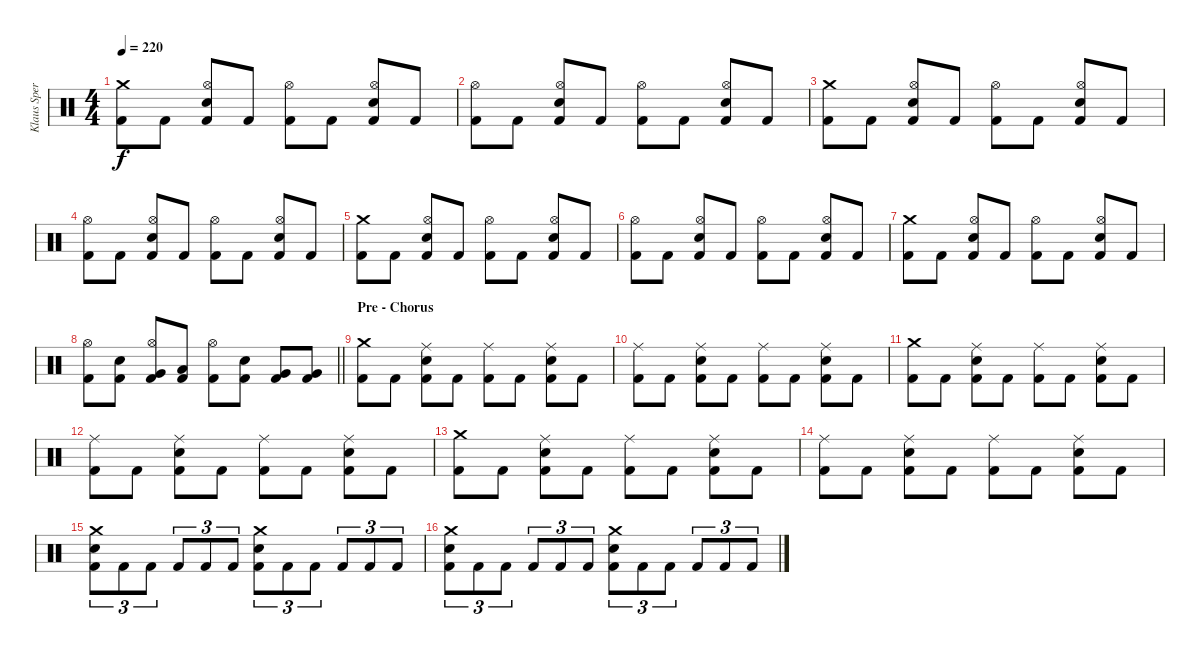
\track ("Klaus Sperling" "Klaus Sper") {instrument percussion}
\staff {score}
\articulation defaults
\ts (4 4)
\tempo 220
\clef neutral
\ks c
("Crash medium (hit)" "Kick (hit) 2").8{dy f} "Kick (hit) 2".8 ("Hi-Hat (open)" "Electric Snare (hit)" "Kick (hit) 2").8 "Kick (hit) 2".8 ("Hi-Hat (open)" "Kick (hit) 2").8 "Kick (hit) 2".8 ("Hi-Hat (open)" "Electric Snare (hit)" "Kick (hit) 2").8 "Kick (hit) 2".8 |
("Hi-Hat (open)" "Kick (hit) 2").8 "Kick (hit) 2".8 ("Hi-Hat (open)" "Electric Snare (hit)" "Kick (hit) 2").8 "Kick (hit) 2".8 ("Hi-Hat (open)" "Kick (hit) 2").8 "Kick (hit) 2".8 ("Hi-Hat (open)" "Electric Snare (hit)" "Kick (hit) 2").8 "Kick (hit) 2".8 |
("Crash medium (hit)" "Kick (hit) 2").8 "Kick (hit) 2".8 ("Hi-Hat (open)" "Electric Snare (hit)" "Kick (hit) 2").8 "Kick (hit) 2".8 ("Hi-Hat (open)" "Kick (hit) 2").8 "Kick (hit) 2".8 ("Hi-Hat (open)" "Electric Snare (hit)" "Kick (hit) 2").8 "Kick (hit) 2".8 |
("Hi-Hat (open)" "Kick (hit) 2").8 "Kick (hit) 2".8 ("Hi-Hat (open)" "Electric Snare (hit)" "Kick (hit) 2").8 "Kick (hit) 2".8 ("Hi-Hat (open)" "Kick (hit) 2").8 "Kick (hit) 2".8 ("Hi-Hat (open)" "Electric Snare (hit)" "Kick (hit) 2").8 "Kick (hit) 2".8 |
("Crash medium (hit)" "Kick (hit) 2").8 "Kick (hit) 2".8 ("Hi-Hat (open)" "Electric Snare (hit)" "Kick (hit) 2").8 "Kick (hit) 2".8 ("Hi-Hat (open)" "Kick (hit) 2").8 "Kick (hit) 2".8 ("Hi-Hat (open)" "Electric Snare (hit)" "Kick (hit) 2").8 "Kick (hit) 2".8 |
("Hi-Hat (open)" "Kick (hit) 2").8 "Kick (hit) 2".8 ("Hi-Hat (open)" "Electric Snare (hit)" "Kick (hit) 2").8 "Kick (hit) 2".8 ("Hi-Hat (open)" "Kick (hit) 2").8 "Kick (hit) 2".8 ("Hi-Hat (open)" "Electric Snare (hit)" "Kick (hit) 2").8 "Kick (hit) 2".8 |
("Crash medium (hit)" "Kick (hit) 2").8 "Kick (hit) 2".8 ("Hi-Hat (open)" "Electric Snare (hit)" "Kick (hit) 2").8 "Kick (hit) 2".8 ("Hi-Hat (open)" "Kick (hit) 2").8 "Kick (hit) 2".8 ("Hi-Hat (open)" "Electric Snare (hit)" "Kick (hit) 2").8 "Kick (hit) 2".8 |
\barLineRight lightlight
("Hi-Hat (open)" "Kick (hit) 2").8 ("Electric Snare (hit)" "Kick (hit) 2").8 ("Hi-Hat (open)" "Very Low Tom (hit)" "Kick (hit) 2").8 ("Low Floor Tom (hit)" "Kick (hit) 2").8 ("Hi-Hat (open)" "Kick (hit) 2").8 ("Electric Snare (hit)" "Kick (hit) 2").8 ("Very Low Tom (hit)" "Kick (hit) 2").8 ("Very Low Tom (hit)" "Kick (hit) 2").8 |
\section ("" "Pre - Chorus")
("Crash medium (hit)" "Kick (hit) 2").8 "Kick (hit) 2".8 ("Ride (middle)" "Electric Snare (hit)" "Kick (hit) 2").8 "Kick (hit) 2".8 ("Ride (middle)" "Kick (hit) 2").8 "Kick (hit) 2".8 ("Ride (middle)" "Electric Snare (hit)" "Kick (hit) 2").8 "Kick (hit) 2".8 |
("Ride (middle)" "Kick (hit) 2").8 "Kick (hit) 2".8 ("Ride (middle)" "Electric Snare (hit)" "Kick (hit) 2").8 "Kick (hit) 2".8 ("Ride (middle)" "Kick (hit) 2").8 "Kick (hit) 2".8 ("Ride (middle)" "Electric Snare (hit)" "Kick (hit) 2").8 "Kick (hit) 2".8 |
("Crash medium (hit)" "Kick (hit) 2").8 "Kick (hit) 2".8 ("Ride (middle)" "Electric Snare (hit)" "Kick (hit) 2").8 "Kick (hit) 2".8 ("Ride (middle)" "Kick (hit) 2").8 "Kick (hit) 2".8 ("Ride (middle)" "Electric Snare (hit)" "Kick (hit) 2").8 "Kick (hit) 2".8 |
("Ride (middle)" "Kick (hit) 2").8 "Kick (hit) 2".8 ("Ride (middle)" "Electric Snare (hit)" "Kick (hit) 2").8 "Kick (hit) 2".8 ("Ride (middle)" "Kick (hit) 2").8 "Kick (hit) 2".8 ("Ride (middle)" "Electric Snare (hit)" "Kick (hit) 2").8 "Kick (hit) 2".8 |
("Crash medium (hit)" "Kick (hit) 2").8 "Kick (hit) 2".8 ("Ride (middle)" "Electric Snare (hit)" "Kick (hit) 2").8 "Kick (hit) 2".8 ("Ride (middle)" "Kick (hit) 2").8 "Kick (hit) 2".8 ("Ride (middle)" "Electric Snare (hit)" "Kick (hit) 2").8 "Kick (hit) 2".8 |
("Ride (middle)" "Kick (hit) 2").8 "Kick (hit) 2".8 ("Ride (middle)" "Electric Snare (hit)" "Kick (hit) 2").8 "Kick (hit) 2".8 ("Ride (middle)" "Kick (hit) 2").8 "Kick (hit) 2".8 ("Ride (middle)" "Electric Snare (hit)" "Kick (hit) 2").8 "Kick (hit) 2".8 |
("Crash medium (hit)" "Electric Snare (hit)" "Kick (hit) 2").8{tu (3 2)} "Kick (hit) 2".8{tu (3 2)} "Kick (hit) 2".8{tu (3 2)} "Kick (hit) 2".8{tu (3 2)} "Kick (hit) 2".8{tu (3 2)} "Kick (hit) 2".8{tu (3 2)} ("Crash medium (hit)" "Electric Snare (hit)" "Kick (hit) 2").8{tu (3 2)} "Kick (hit) 2".8{tu (3 2)} "Kick (hit) 2".8{tu (3 2)} "Kick (hit) 2".8{tu (3 2)} "Kick (hit) 2".8{tu (3 2)} "Kick (hit) 2".8{tu (3 2)} |
("Crash medium (hit)" "Electric Snare (hit)" "Kick (hit) 2").8{tu (3 2)} "Kick (hit) 2".8{tu (3 2)} "Kick (hit) 2".8{tu (3 2)} "Kick (hit) 2".8{tu (3 2)} "Kick (hit) 2".8{tu (3 2)} "Kick (hit) 2".8{tu (3 2)} ("Crash medium (hit)" "Electric Snare (hit)" "Kick (hit) 2").8{tu (3 2)} "Kick (hit) 2".8{tu (3 2)} "Kick (hit) 2".8{tu (3 2)} "Kick (hit) 2".8{tu (3 2)} "Kick (hit) 2".8{tu (3 2)} "Kick (hit) 2".8{tu (3 2)}
